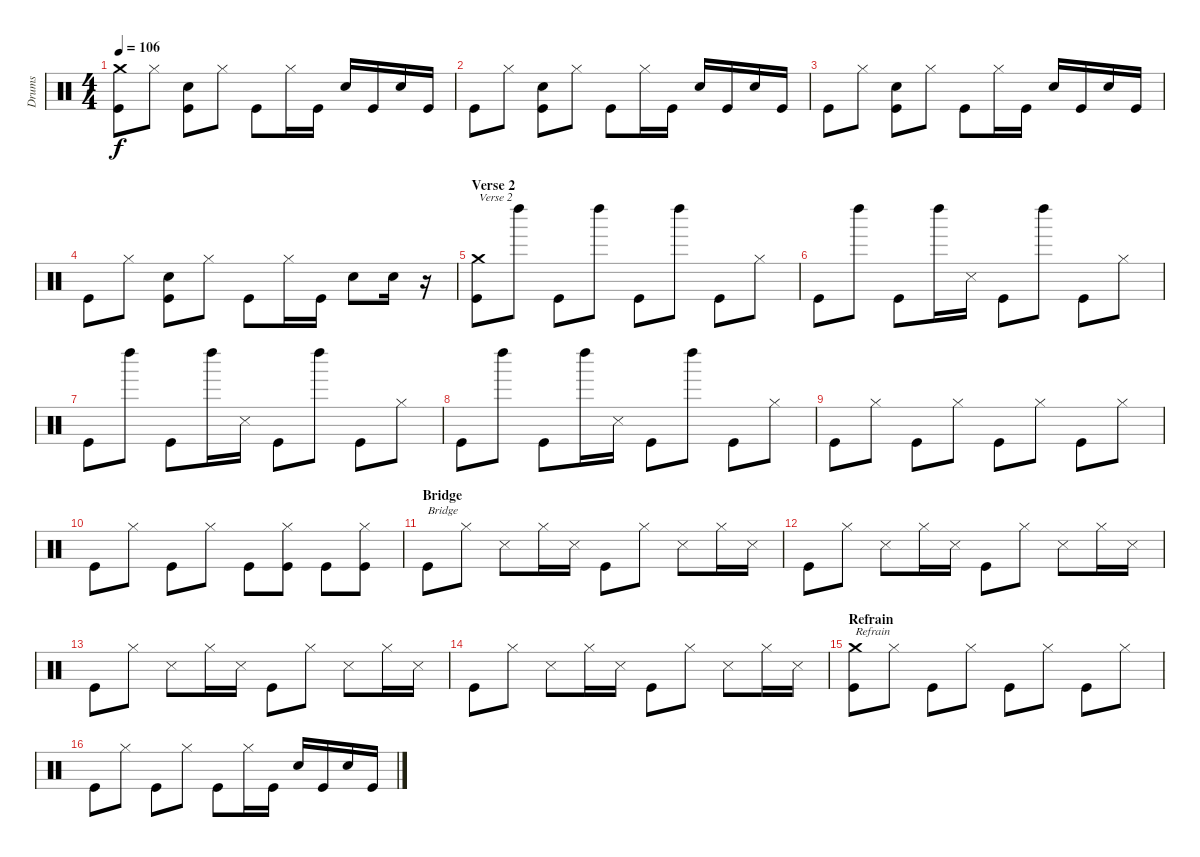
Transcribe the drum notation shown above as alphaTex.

\track ("Drums" "Drums") {instrument percussion}
\staff {score}
\articulation defaults
\ts (4 4)
\tempo 106
\clef neutral
\ks c
("Kick (hit)" "Crash medium (hit)").8{dy f} "Hi-Hat (closed)".8 ("Kick (hit)" "Electric Snare (hit)").8 "Hi-Hat (closed)".8 "Kick (hit)".8 "Hi-Hat (closed)".16 "Kick (hit)".16 "Electric Snare (hit)".16 "Kick (hit)".16 "Electric Snare (hit)".16 "Kick (hit)".16 |
"Kick (hit)".8 "Hi-Hat (closed)".8 ("Kick (hit)" "Electric Snare (hit)").8 "Hi-Hat (closed)".8 "Kick (hit)".8 "Hi-Hat (closed)".16 "Kick (hit)".16 "Electric Snare (hit)".16 "Kick (hit)".16 "Electric Snare (hit)".16 "Kick (hit)".16 |
"Kick (hit)".8 "Hi-Hat (closed)".8 ("Kick (hit)" "Electric Snare (hit)").8 "Hi-Hat (closed)".8 "Kick (hit)".8 "Hi-Hat (closed)".16 "Kick (hit)".16 "Electric Snare (hit)".16 "Kick (hit)".16 "Electric Snare (hit)".16 "Kick (hit)".16 |
"Kick (hit)".8 "Hi-Hat (closed)".8 ("Kick (hit)" "Electric Snare (hit)").8 "Hi-Hat (closed)".8 "Kick (hit)".8 "Hi-Hat (closed)".16 "Kick (hit)".16 "Electric Snare (hit)".8 "Electric Snare (hit)".16 r.16 |
\section ("" "Verse 2")
("Kick (hit)" "Crash medium (hit)").8{txt "Verse 2"} "Left Maraca (hit)".8 "Kick (hit)".8 "Left Maraca (hit)".8 "Kick (hit)".8 "Left Maraca (hit)".8 "Kick (hit)".8 "Hi-Hat (closed)".8 |
"Kick (hit)".8 "Left Maraca (hit)".8 "Kick (hit)".8 "Left Maraca (hit)".16 "Snare (side stick) 3".16 "Kick (hit)".8 "Left Maraca (hit)".8 "Kick (hit)".8 "Hi-Hat (closed)".8 |
"Kick (hit)".8 "Left Maraca (hit)".8 "Kick (hit)".8 "Left Maraca (hit)".16 "Snare (side stick) 3".16 "Kick (hit)".8 "Left Maraca (hit)".8 "Kick (hit)".8 "Hi-Hat (closed)".8 |
"Kick (hit)".8 "Left Maraca (hit)".8 "Kick (hit)".8 "Left Maraca (hit)".16 "Snare (side stick) 3".16 "Kick (hit)".8 "Left Maraca (hit)".8 "Kick (hit)".8 "Hi-Hat (closed)".8 |
"Kick (hit)".8 "Hi-Hat (closed)".8 "Kick (hit)".8 "Hi-Hat (closed)".8 "Kick (hit)".8 "Hi-Hat (closed)".8 "Kick (hit)".8 "Hi-Hat (closed)".8 |
"Kick (hit)".8 "Hi-Hat (closed)".8 "Kick (hit)".8 "Hi-Hat (closed)".8 "Kick (hit)".8 ("Kick (hit)" "Hi-Hat (closed)").8 "Kick (hit)".8 ("Kick (hit)" "Hi-Hat (closed)").8 |
\section ("" "Bridge")
"Kick (hit)".8{txt "Bridge"} "Hi-Hat (closed)".8 "Snare (side stick) 3".8 "Hi-Hat (closed)".16 "Snare (side stick) 3".16 "Kick (hit)".8 "Hi-Hat (closed)".8 "Snare (side stick) 3".8 "Hi-Hat (closed)".16 "Snare (side stick) 3".16 |
"Kick (hit)".8 "Hi-Hat (closed)".8 "Snare (side stick) 3".8 "Hi-Hat (closed)".16 "Snare (side stick) 3".16 "Kick (hit)".8 "Hi-Hat (closed)".8 "Snare (side stick) 3".8 "Hi-Hat (closed)".16 "Snare (side stick) 3".16 |
"Kick (hit)".8 "Hi-Hat (closed)".8 "Snare (side stick) 3".8 "Hi-Hat (closed)".16 "Snare (side stick) 3".16 "Kick (hit)".8 "Hi-Hat (closed)".8 "Snare (side stick) 3".8 "Hi-Hat (closed)".16 "Snare (side stick) 3".16 |
"Kick (hit)".8 "Hi-Hat (closed)".8 "Snare (side stick) 3".8 "Hi-Hat (closed)".16 "Snare (side stick) 3".16 "Kick (hit)".8 "Hi-Hat (closed)".8 "Snare (side stick) 3".8 "Hi-Hat (closed)".16 "Snare (side stick) 3".16 |
\section ("" "Refrain")
("Kick (hit)" "Crash medium (hit)").8{txt "Refrain"} "Hi-Hat (closed)".8 "Kick (hit)".8 "Hi-Hat (closed)".8 "Kick (hit)".8 "Hi-Hat (closed)".8 "Kick (hit)".8 "Hi-Hat (closed)".8 |
"Kick (hit)".8 "Hi-Hat (closed)".8 "Kick (hit)".8 "Hi-Hat (closed)".8 "Kick (hit)".8 "Hi-Hat (closed)".16 "Kick (hit)".16 "Electric Snare (hit)".16 "Kick (hit)".16 "Electric Snare (hit)".16 "Kick (hit)".16
